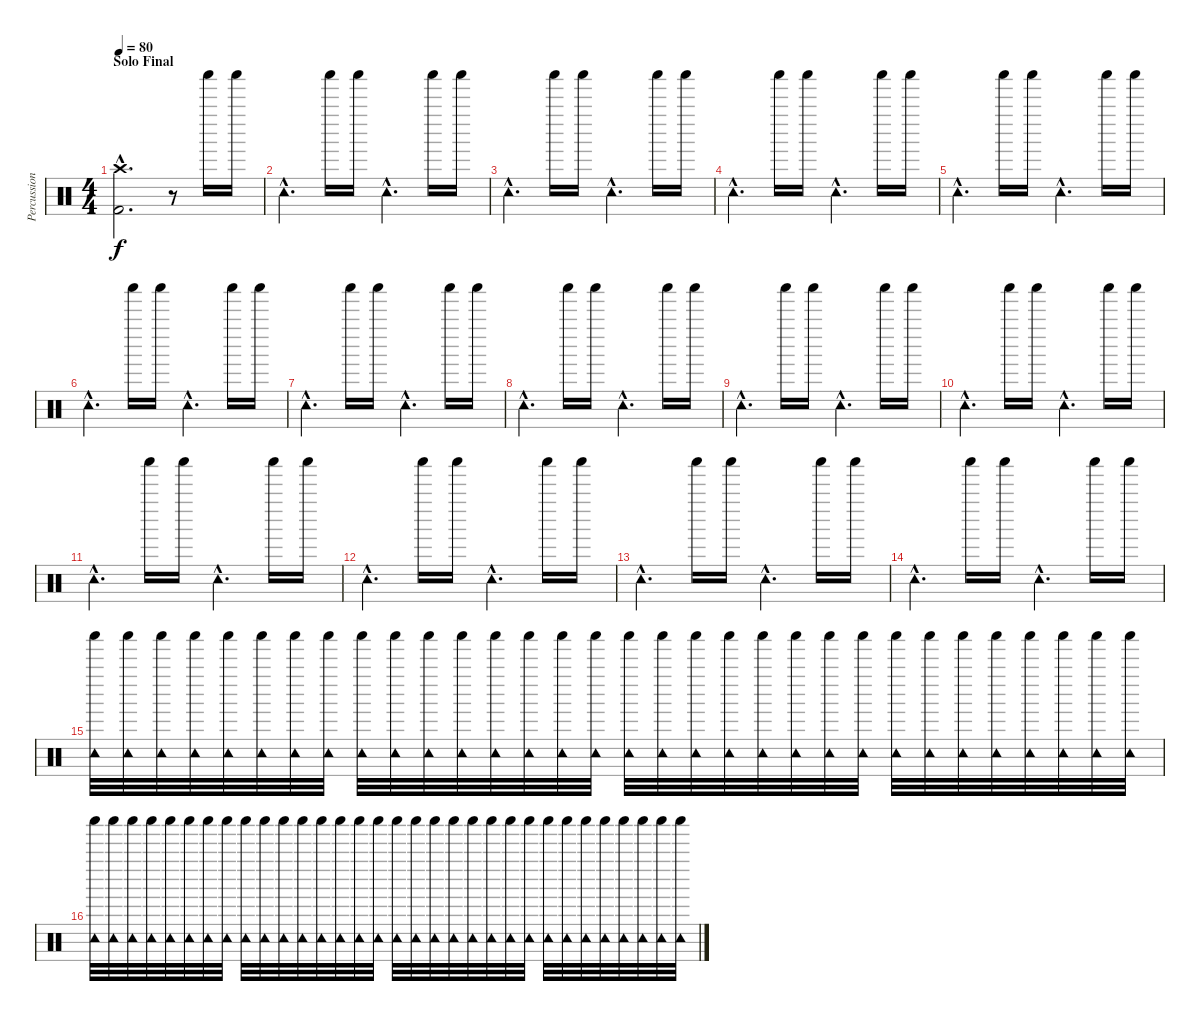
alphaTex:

\track ("Percussion" "Percussion") {instrument percussion}
\staff {score}
\articulation defaults
\ts (4 4)
\section ("" "Solo Final")
\tempo 80
\clef neutral
\ks c
("Crash high (hit)"{hac} "Kick (hit) 2"{hac}).2{d dy f} r.8 "Shaker (hit)".16 "Shaker (hit)".16 |
"Tambourine (hit)"{hac}.4{d} "Shaker (hit)".16 "Shaker (hit)".16 "Tambourine (hit)"{hac}.4{d} "Shaker (hit)".16 "Shaker (hit)".16 |
"Tambourine (hit)"{hac}.4{d} "Shaker (hit)".16 "Shaker (hit)".16 "Tambourine (hit)"{hac}.4{d} "Shaker (hit)".16 "Shaker (hit)".16 |
"Tambourine (hit)"{hac}.4{d} "Shaker (hit)".16 "Shaker (hit)".16 "Tambourine (hit)"{hac}.4{d} "Shaker (hit)".16 "Shaker (hit)".16 |
"Tambourine (hit)"{hac}.4{d} "Shaker (hit)".16 "Shaker (hit)".16 "Tambourine (hit)"{hac}.4{d} "Shaker (hit)".16 "Shaker (hit)".16 |
"Tambourine (hit)"{hac}.4{d} "Shaker (hit)".16 "Shaker (hit)".16 "Tambourine (hit)"{hac}.4{d} "Shaker (hit)".16 "Shaker (hit)".16 |
"Tambourine (hit)"{hac}.4{d} "Shaker (hit)".16 "Shaker (hit)".16 "Tambourine (hit)"{hac}.4{d} "Shaker (hit)".16 "Shaker (hit)".16 |
"Tambourine (hit)"{hac}.4{d} "Shaker (hit)".16 "Shaker (hit)".16 "Tambourine (hit)"{hac}.4{d} "Shaker (hit)".16 "Shaker (hit)".16 |
"Tambourine (hit)"{hac}.4{d} "Shaker (hit)".16 "Shaker (hit)".16 "Tambourine (hit)"{hac}.4{d} "Shaker (hit)".16 "Shaker (hit)".16 |
"Tambourine (hit)"{hac}.4{d} "Shaker (hit)".16 "Shaker (hit)".16 "Tambourine (hit)"{hac}.4{d} "Shaker (hit)".16 "Shaker (hit)".16 |
"Tambourine (hit)"{hac}.4{d} "Shaker (hit)".16 "Shaker (hit)".16 "Tambourine (hit)"{hac}.4{d} "Shaker (hit)".16 "Shaker (hit)".16 |
"Tambourine (hit)"{hac}.4{d} "Shaker (hit)".16 "Shaker (hit)".16 "Tambourine (hit)"{hac}.4{d} "Shaker (hit)".16 "Shaker (hit)".16 |
"Tambourine (hit)"{hac}.4{d} "Shaker (hit)".16 "Shaker (hit)".16 "Tambourine (hit)"{hac}.4{d} "Shaker (hit)".16 "Shaker (hit)".16 |
"Tambourine (hit)"{hac}.4{d} "Shaker (hit)".16 "Shaker (hit)".16 "Tambourine (hit)"{hac}.4{d} "Shaker (hit)".16 "Shaker (hit)".16 |
("Shaker (hit)" "Tambourine (hit)").32{volume 0} ("Shaker (hit)" "Tambourine (hit)").32 ("Shaker (hit)" "Tambourine (hit)").32 ("Shaker (hit)" "Tambourine (hit)").32 ("Shaker (hit)" "Tambourine (hit)").32 ("Shaker (hit)" "Tambourine (hit)").32 ("Shaker (hit)" "Tambourine (hit)").32 ("Shaker (hit)" "Tambourine (hit)").32 ("Shaker (hit)" "Tambourine (hit)").32 ("Shaker (hit)" "Tambourine (hit)").32 ("Shaker (hit)" "Tambourine (hit)").32 ("Shaker (hit)" "Tambourine (hit)").32 ("Shaker (hit)" "Tambourine (hit)").32 ("Shaker (hit)" "Tambourine (hit)").32 ("Shaker (hit)" "Tambourine (hit)").32 ("Shaker (hit)" "Tambourine (hit)").32 ("Shaker (hit)" "Tambourine (hit)").32 ("Shaker (hit)" "Tambourine (hit)").32 ("Shaker (hit)" "Tambourine (hit)").32 ("Shaker (hit)" "Tambourine (hit)").32 ("Shaker (hit)" "Tambourine (hit)").32 ("Shaker (hit)" "Tambourine (hit)").32 ("Shaker (hit)" "Tambourine (hit)").32 ("Shaker (hit)" "Tambourine (hit)").32 ("Shaker (hit)" "Tambourine (hit)").32 ("Shaker (hit)" "Tambourine (hit)").32 ("Shaker (hit)" "Tambourine (hit)").32 ("Shaker (hit)" "Tambourine (hit)").32 ("Shaker (hit)" "Tambourine (hit)").32 ("Shaker (hit)" "Tambourine (hit)").32 ("Shaker (hit)" "Tambourine (hit)").32 ("Shaker (hit)" "Tambourine (hit)").32 |
("Shaker (hit)" "Tambourine (hit)").32 ("Shaker (hit)" "Tambourine (hit)").32 ("Shaker (hit)" "Tambourine (hit)").32 ("Shaker (hit)" "Tambourine (hit)").32 ("Shaker (hit)" "Tambourine (hit)").32 ("Shaker (hit)" "Tambourine (hit)").32 ("Shaker (hit)" "Tambourine (hit)").32 ("Shaker (hit)" "Tambourine (hit)").32 ("Shaker (hit)" "Tambourine (hit)").32 ("Shaker (hit)" "Tambourine (hit)").32 ("Shaker (hit)" "Tambourine (hit)").32 ("Shaker (hit)" "Tambourine (hit)").32 ("Shaker (hit)" "Tambourine (hit)").32 ("Shaker (hit)" "Tambourine (hit)").32 ("Shaker (hit)" "Tambourine (hit)").32 ("Shaker (hit)" "Tambourine (hit)").32 ("Shaker (hit)" "Tambourine (hit)").32 ("Shaker (hit)" "Tambourine (hit)").32 ("Shaker (hit)" "Tambourine (hit)").32 ("Shaker (hit)" "Tambourine (hit)").32 ("Shaker (hit)" "Tambourine (hit)").32 ("Shaker (hit)" "Tambourine (hit)").32 ("Shaker (hit)" "Tambourine (hit)").32 ("Shaker (hit)" "Tambourine (hit)").32 ("Shaker (hit)" "Tambourine (hit)").32 ("Shaker (hit)" "Tambourine (hit)").32 ("Shaker (hit)" "Tambourine (hit)").32 ("Shaker (hit)" "Tambourine (hit)").32 ("Shaker (hit)" "Tambourine (hit)").32 ("Shaker (hit)" "Tambourine (hit)").32 ("Shaker (hit)" "Tambourine (hit)").32 ("Shaker (hit)" "Tambourine (hit)").32
